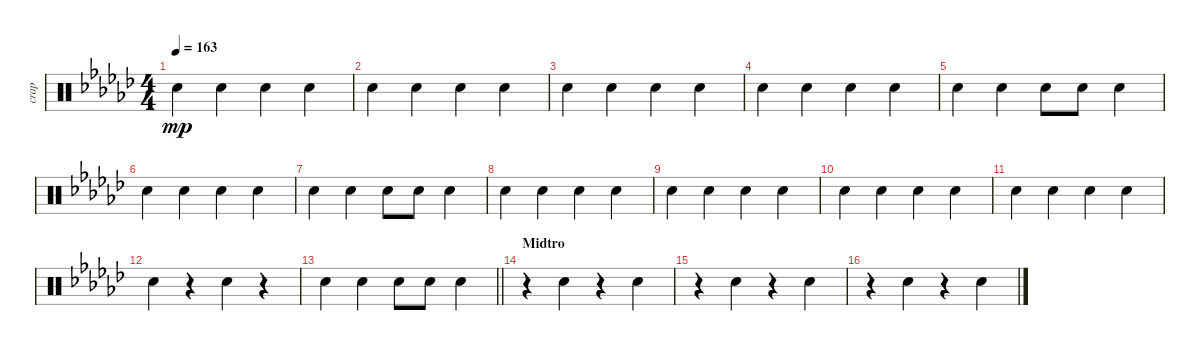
\track ("crap" "crap") {mute instrument percussion}
\staff {score}
\articulation defaults
\ts (4 4)
\tempo 163
\clef neutral
\ks gb "Hand Clap (hit)".4{dy mp} "Hand Clap (hit)".4 "Hand Clap (hit)".4 "Hand Clap (hit)".4
|
"Hand Clap (hit)".4 "Hand Clap (hit)".4 "Hand Clap (hit)".4 "Hand Clap (hit)".4 |
"Hand Clap (hit)".4 "Hand Clap (hit)".4 "Hand Clap (hit)".4 "Hand Clap (hit)".4 |
"Hand Clap (hit)".4 "Hand Clap (hit)".4 "Hand Clap (hit)".4 "Hand Clap (hit)".4 |
"Hand Clap (hit)".4 "Hand Clap (hit)".4 "Hand Clap (hit)".8 "Hand Clap (hit)".8 "Hand Clap (hit)".4 |
"Hand Clap (hit)".4 "Hand Clap (hit)".4 "Hand Clap (hit)".4 "Hand Clap (hit)".4 |
"Hand Clap (hit)".4 "Hand Clap (hit)".4 "Hand Clap (hit)".8 "Hand Clap (hit)".8 "Hand Clap (hit)".4 |
"Hand Clap (hit)".4 "Hand Clap (hit)".4 "Hand Clap (hit)".4 "Hand Clap (hit)".4 |
"Hand Clap (hit)".4 "Hand Clap (hit)".4 "Hand Clap (hit)".4 "Hand Clap (hit)".4 |
"Hand Clap (hit)".4 "Hand Clap (hit)".4 "Hand Clap (hit)".4 "Hand Clap (hit)".4 |
"Hand Clap (hit)".4 "Hand Clap (hit)".4 "Hand Clap (hit)".4 "Hand Clap (hit)".4 |
"Hand Clap (hit)".4 r.4 "Hand Clap (hit)".4 r.4 |
\barLineRight lightlight "Hand Clap (hit)".4 "Hand Clap (hit)".4 "Hand Clap (hit)".8 "Hand Clap (hit)".8 "Hand Clap (hit)".4
|
\section ("" "Midtro")
r.4 "Hand Clap (hit)".4 r.4 "Hand Clap (hit)".4 |
r.4 "Hand Clap (hit)".4 r.4 "Hand Clap (hit)".4 |
r.4 "Hand Clap (hit)".4 r.4 "Hand Clap (hit)".4
